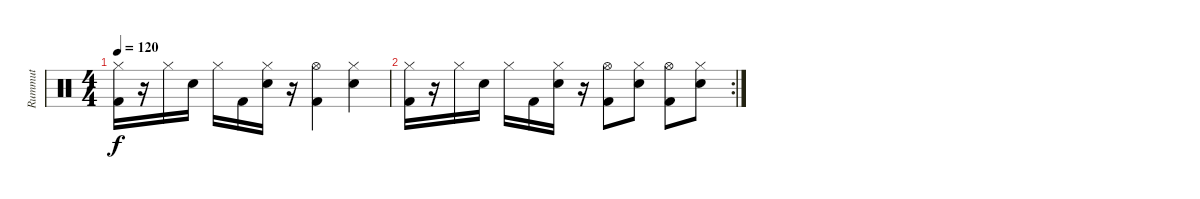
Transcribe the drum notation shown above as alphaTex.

\track ("Rummut" "Rummut") {instrument percussion}
\staff {score}
\articulation defaults
\ts (4 4)
\tempo 120
\clef neutral
\ks c
("Hi-Hat (closed)" "Kick (hit) 2").16{dy f} r.16 "Hi-Hat (closed)".16 "Snare (hit) 2".16 "Hi-Hat (closed)".16 "Kick (hit) 2".16 ("Hi-Hat (closed)" "Snare (hit) 2").16 r.16 ("Hi-Hat (open)" "Kick (hit) 2").4 ("Hi-Hat (closed)" "Snare (hit) 2").4 |
\rc 2
("Hi-Hat (closed)" "Kick (hit) 2").16 r.16 "Hi-Hat (closed)".16 "Snare (hit) 2".16 "Hi-Hat (closed)".16 "Kick (hit) 2".16 ("Hi-Hat (closed)" "Snare (hit) 2").16 r.16 ("Hi-Hat (open)" "Kick (hit) 2").8 ("Hi-Hat (closed)" "Snare (hit) 2").8 ("Hi-Hat (open)" "Kick (hit) 2").8 ("Hi-Hat (closed)" "Snare (hit) 2").8
